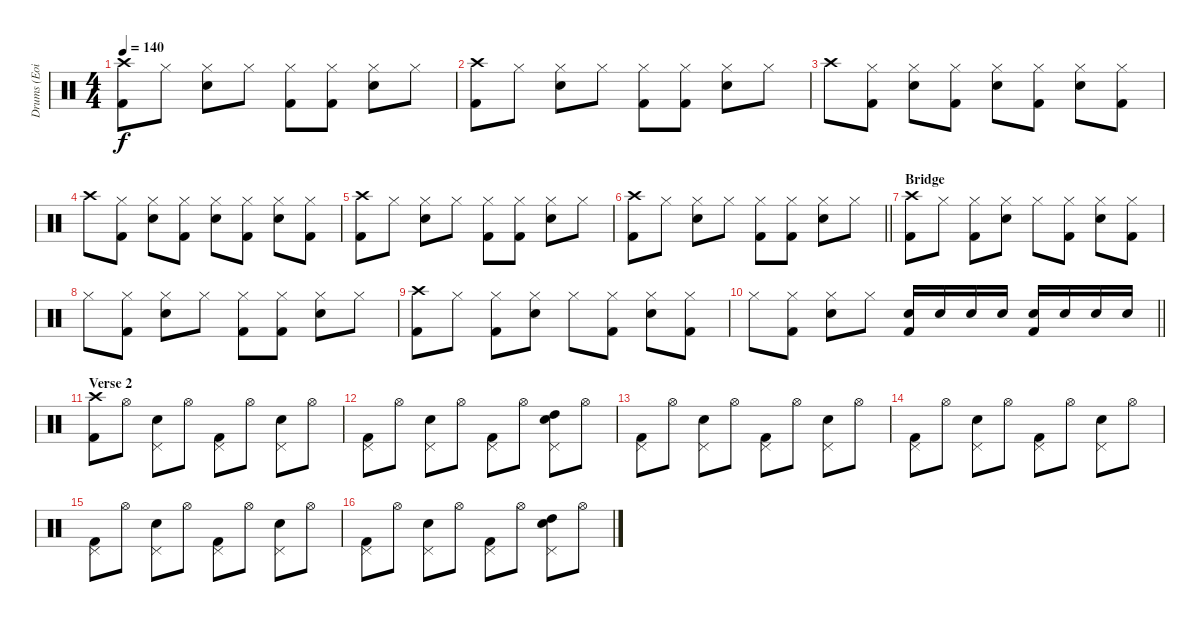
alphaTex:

\track ("Drums (Eoin)" "Drums (Eoi") {instrument percussion}
\staff {score}
\articulation defaults
\ts (4 4)
\tempo 140
\clef neutral
\ks c
("Crash high (hit)" "Kick (hit) 2").8{dy f} "Hi-Hat (closed)".8 ("Hi-Hat (closed)" "Electric Snare (hit)").8 "Hi-Hat (closed)".8 ("Hi-Hat (closed)" "Kick (hit) 2").8 ("Hi-Hat (closed)" "Kick (hit) 2").8 ("Hi-Hat (closed)" "Electric Snare (hit)").8 "Hi-Hat (closed)".8 |
("Crash high (hit)" "Kick (hit) 2").8 "Hi-Hat (closed)".8 ("Hi-Hat (closed)" "Electric Snare (hit)").8 "Hi-Hat (closed)".8 ("Hi-Hat (closed)" "Kick (hit) 2").8 ("Hi-Hat (closed)" "Kick (hit) 2").8 ("Hi-Hat (closed)" "Electric Snare (hit)").8 "Hi-Hat (closed)".8 |
"Crash high (hit)".8 ("Hi-Hat (closed)" "Kick (hit) 2").8 ("Hi-Hat (closed)" "Electric Snare (hit)").8 ("Hi-Hat (closed)" "Kick (hit) 2").8 ("Hi-Hat (closed)" "Electric Snare (hit)").8 ("Hi-Hat (closed)" "Kick (hit) 2").8 ("Hi-Hat (closed)" "Electric Snare (hit)").8 ("Hi-Hat (closed)" "Kick (hit) 2").8 |
"Crash high (hit)".8 ("Hi-Hat (closed)" "Kick (hit) 2").8 ("Hi-Hat (closed)" "Electric Snare (hit)").8 ("Hi-Hat (closed)" "Kick (hit) 2").8 ("Hi-Hat (closed)" "Electric Snare (hit)").8 ("Hi-Hat (closed)" "Kick (hit) 2").8 ("Hi-Hat (closed)" "Electric Snare (hit)").8 ("Hi-Hat (closed)" "Kick (hit) 2").8 |
("Crash high (hit)" "Kick (hit) 2").8 "Hi-Hat (closed)".8 ("Hi-Hat (closed)" "Electric Snare (hit)").8 "Hi-Hat (closed)".8 ("Hi-Hat (closed)" "Kick (hit) 2").8 ("Hi-Hat (closed)" "Kick (hit) 2").8 ("Hi-Hat (closed)" "Electric Snare (hit)").8 "Hi-Hat (closed)".8 |
\barLineRight lightlight
("Crash high (hit)" "Kick (hit) 2").8 "Hi-Hat (closed)".8 ("Hi-Hat (closed)" "Electric Snare (hit)").8 "Hi-Hat (closed)".8 ("Hi-Hat (closed)" "Kick (hit) 2").8 ("Hi-Hat (closed)" "Kick (hit) 2").8 ("Hi-Hat (closed)" "Electric Snare (hit)").8 "Hi-Hat (closed)".8 |
\section ("" "Bridge")
("Crash high (hit)" "Kick (hit) 2").8 "Hi-Hat (closed)".8 ("Hi-Hat (closed)" "Kick (hit) 2").8 ("Hi-Hat (closed)" "Electric Snare (hit)").8 "Hi-Hat (closed)".8 ("Hi-Hat (closed)" "Kick (hit) 2").8 ("Hi-Hat (closed)" "Electric Snare (hit)").8 ("Hi-Hat (closed)" "Kick (hit) 2").8 |
"Hi-Hat (closed)".8 ("Hi-Hat (closed)" "Kick (hit) 2").8 ("Hi-Hat (closed)" "Electric Snare (hit)").8 "Hi-Hat (closed)".8 ("Hi-Hat (closed)" "Kick (hit) 2").8 ("Hi-Hat (closed)" "Kick (hit) 2").8 ("Hi-Hat (closed)" "Electric Snare (hit)").8 "Hi-Hat (closed)".8 |
("Crash high (hit)" "Kick (hit) 2").8 "Hi-Hat (closed)".8 ("Hi-Hat (closed)" "Kick (hit) 2").8 ("Hi-Hat (closed)" "Electric Snare (hit)").8 "Hi-Hat (closed)".8 ("Hi-Hat (closed)" "Kick (hit) 2").8 ("Hi-Hat (closed)" "Electric Snare (hit)").8 ("Hi-Hat (closed)" "Kick (hit) 2").8 |
\barLineRight lightlight "Hi-Hat (closed)".8
("Hi-Hat (closed)" "Kick (hit) 2").8 ("Hi-Hat (closed)" "Electric Snare (hit)").8 "Hi-Hat (closed)".8 ("Electric Snare (hit)" "Kick (hit) 2").16 "Electric Snare (hit)".16 "Electric Snare (hit)".16 "Electric Snare (hit)".16 ("Electric Snare (hit)" "Kick (hit) 2").16 "Electric Snare (hit)".16 "Electric Snare (hit)".16 "Electric Snare (hit)".16 |
\section ("" "Verse 2")
("Crash high (hit)" "Kick (hit) 2").8 "Hi-Hat (open)".8 ("Pedal Hi-Hat (hit)" "Electric Snare (hit)").8 "Hi-Hat (open)".8 ("Pedal Hi-Hat (hit)" "Kick (hit) 2").8 "Hi-Hat (open)".8 ("Pedal Hi-Hat (hit)" "Electric Snare (hit)").8 "Hi-Hat (open)".8 |
("Pedal Hi-Hat (hit)" "Kick (hit) 2").8 "Hi-Hat (open)".8 ("Pedal Hi-Hat (hit)" "Electric Snare (hit)").8 "Hi-Hat (open)".8 ("Pedal Hi-Hat (hit)" "Kick (hit) 2").8 "Hi-Hat (open)".8 ("Pedal Hi-Hat (hit)" "Electric Snare (hit)" "High Tom (hit)").8 "Hi-Hat (open)".8 |
("Pedal Hi-Hat (hit)" "Kick (hit) 2").8 "Hi-Hat (open)".8 ("Pedal Hi-Hat (hit)" "Electric Snare (hit)").8 "Hi-Hat (open)".8 ("Pedal Hi-Hat (hit)" "Kick (hit) 2").8 "Hi-Hat (open)".8 ("Pedal Hi-Hat (hit)" "Electric Snare (hit)").8 "Hi-Hat (open)".8 |
("Pedal Hi-Hat (hit)" "Kick (hit) 2").8 "Hi-Hat (open)".8 ("Pedal Hi-Hat (hit)" "Electric Snare (hit)").8 "Hi-Hat (open)".8 ("Pedal Hi-Hat (hit)" "Kick (hit) 2").8 "Hi-Hat (open)".8 ("Pedal Hi-Hat (hit)" "Electric Snare (hit)").8 "Hi-Hat (open)".8 |
("Pedal Hi-Hat (hit)" "Kick (hit) 2").8 "Hi-Hat (open)".8 ("Pedal Hi-Hat (hit)" "Electric Snare (hit)").8 "Hi-Hat (open)".8 ("Pedal Hi-Hat (hit)" "Kick (hit) 2").8 "Hi-Hat (open)".8 ("Pedal Hi-Hat (hit)" "Electric Snare (hit)").8 "Hi-Hat (open)".8 |
("Pedal Hi-Hat (hit)" "Kick (hit) 2").8 "Hi-Hat (open)".8 ("Pedal Hi-Hat (hit)" "Electric Snare (hit)").8 "Hi-Hat (open)".8 ("Pedal Hi-Hat (hit)" "Kick (hit) 2").8 "Hi-Hat (open)".8 ("Pedal Hi-Hat (hit)" "Electric Snare (hit)" "High Tom (hit)").8 "Hi-Hat (open)".8
